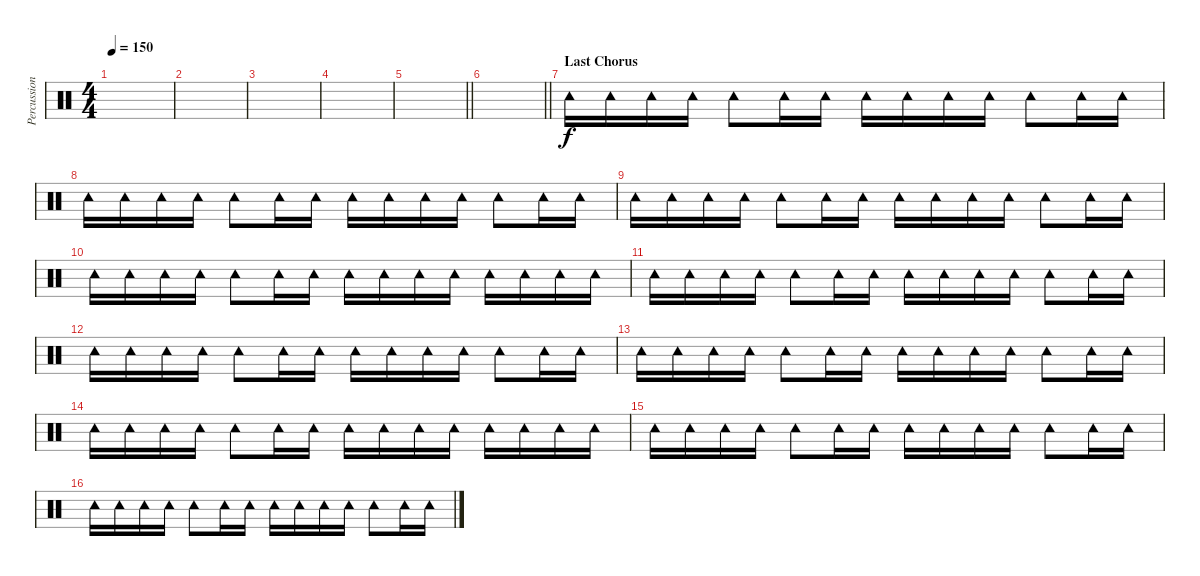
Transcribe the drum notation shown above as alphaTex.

\track ("Percussion" "Percussion") {instrument percussion}
\staff {score}
\articulation defaults
\ts (4 4)
\tempo 150
\clef neutral
\ks c
|
|
|
|
\barLineRight lightlight
|
\barLineRight lightlight
|
\section ("" "Last Chorus")
"Tambourine (hit)".16 "Tambourine (hit)".16 "Tambourine (hit)".16 "Tambourine (hit)".16 "Tambourine (hit)".8 "Tambourine (hit)".16 "Tambourine (hit)".16 "Tambourine (hit)".16 "Tambourine (hit)".16 "Tambourine (hit)".16 "Tambourine (hit)".16 "Tambourine (hit)".8 "Tambourine (hit)".16 "Tambourine (hit)".16 |
"Tambourine (hit)".16 "Tambourine (hit)".16 "Tambourine (hit)".16 "Tambourine (hit)".16 "Tambourine (hit)".8 "Tambourine (hit)".16 "Tambourine (hit)".16 "Tambourine (hit)".16 "Tambourine (hit)".16 "Tambourine (hit)".16 "Tambourine (hit)".16 "Tambourine (hit)".8 "Tambourine (hit)".16 "Tambourine (hit)".16 |
"Tambourine (hit)".16 "Tambourine (hit)".16 "Tambourine (hit)".16 "Tambourine (hit)".16 "Tambourine (hit)".8 "Tambourine (hit)".16 "Tambourine (hit)".16 "Tambourine (hit)".16 "Tambourine (hit)".16 "Tambourine (hit)".16 "Tambourine (hit)".16 "Tambourine (hit)".8 "Tambourine (hit)".16 "Tambourine (hit)".16 |
"Tambourine (hit)".16 "Tambourine (hit)".16 "Tambourine (hit)".16 "Tambourine (hit)".16 "Tambourine (hit)".8 "Tambourine (hit)".16 "Tambourine (hit)".16 "Tambourine (hit)".16 "Tambourine (hit)".16 "Tambourine (hit)".16 "Tambourine (hit)".16 "Tambourine (hit)".16 "Tambourine (hit)".16 "Tambourine (hit)".16 "Tambourine (hit)".16 |
"Tambourine (hit)".16 "Tambourine (hit)".16 "Tambourine (hit)".16 "Tambourine (hit)".16 "Tambourine (hit)".8 "Tambourine (hit)".16 "Tambourine (hit)".16 "Tambourine (hit)".16 "Tambourine (hit)".16 "Tambourine (hit)".16 "Tambourine (hit)".16 "Tambourine (hit)".8 "Tambourine (hit)".16 "Tambourine (hit)".16 |
"Tambourine (hit)".16 "Tambourine (hit)".16 "Tambourine (hit)".16 "Tambourine (hit)".16 "Tambourine (hit)".8 "Tambourine (hit)".16 "Tambourine (hit)".16 "Tambourine (hit)".16 "Tambourine (hit)".16 "Tambourine (hit)".16 "Tambourine (hit)".16 "Tambourine (hit)".8 "Tambourine (hit)".16 "Tambourine (hit)".16 |
"Tambourine (hit)".16 "Tambourine (hit)".16 "Tambourine (hit)".16 "Tambourine (hit)".16 "Tambourine (hit)".8 "Tambourine (hit)".16 "Tambourine (hit)".16 "Tambourine (hit)".16 "Tambourine (hit)".16 "Tambourine (hit)".16 "Tambourine (hit)".16 "Tambourine (hit)".8 "Tambourine (hit)".16 "Tambourine (hit)".16 |
"Tambourine (hit)".16 "Tambourine (hit)".16 "Tambourine (hit)".16 "Tambourine (hit)".16 "Tambourine (hit)".8 "Tambourine (hit)".16 "Tambourine (hit)".16 "Tambourine (hit)".16 "Tambourine (hit)".16 "Tambourine (hit)".16 "Tambourine (hit)".16 "Tambourine (hit)".16 "Tambourine (hit)".16 "Tambourine (hit)".16 "Tambourine (hit)".16 |
"Tambourine (hit)".16 "Tambourine (hit)".16 "Tambourine (hit)".16 "Tambourine (hit)".16 "Tambourine (hit)".8 "Tambourine (hit)".16 "Tambourine (hit)".16 "Tambourine (hit)".16 "Tambourine (hit)".16 "Tambourine (hit)".16 "Tambourine (hit)".16 "Tambourine (hit)".8 "Tambourine (hit)".16 "Tambourine (hit)".16 |
"Tambourine (hit)".16 "Tambourine (hit)".16 "Tambourine (hit)".16 "Tambourine (hit)".16 "Tambourine (hit)".8 "Tambourine (hit)".16 "Tambourine (hit)".16 "Tambourine (hit)".16 "Tambourine (hit)".16 "Tambourine (hit)".16 "Tambourine (hit)".16 "Tambourine (hit)".8 "Tambourine (hit)".16 "Tambourine (hit)".16
